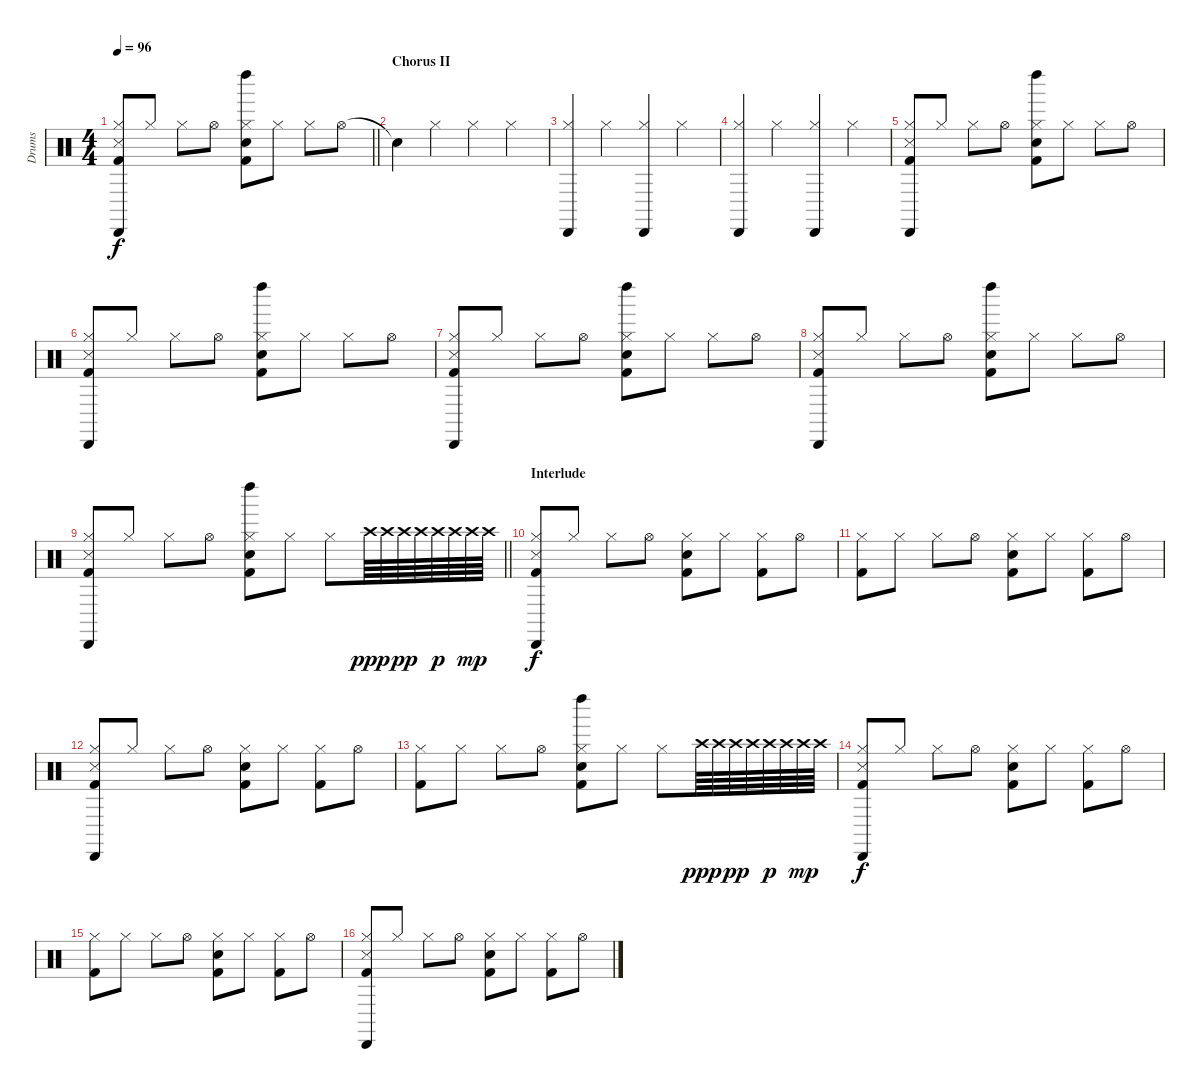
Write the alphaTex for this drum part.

\track ("Drums   " "Drums   ") {instrument percussion}
\staff {score}
\articulation defaults
\ts (4 4)
\tempo 96
\clef neutral
\barLineRight lightlight
\ks c
("Snare (side stick) 3" "Hi-Hat (closed)" "Kick (hit) 2" "Cabasa (hit)").8{dy f} "Hi-Hat (closed)".8 "Hi-Hat (closed)".8 "Hi-Hat (open)".8 ("Hi-Hat (closed)" "Electric Snare (hit)" "Kick (hit) 2" "Left Maraca (hit)").8 "Hi-Hat (closed)".8 "Hi-Hat (closed)".8 "Hi-Hat (open)".8 |
\section ("" "Chorus II")
"Snare (hit)"{t}.4 "Hi-Hat (closed)".4 "Hi-Hat (closed)".4 "Hi-Hat (closed)".4 |
("Hi-Hat (closed)" "Cabasa (hit)").4 "Hi-Hat (closed)".4 ("Hi-Hat (closed)" "Cabasa (hit)").4 "Hi-Hat (closed)".4 |
("Hi-Hat (closed)" "Cabasa (hit)").4 "Hi-Hat (closed)".4 ("Hi-Hat (closed)" "Cabasa (hit)").4 "Hi-Hat (closed)".4 |
("Snare (side stick) 3" "Hi-Hat (closed)" "Kick (hit) 2" "Cabasa (hit)").8 "Hi-Hat (closed)".8 "Hi-Hat (closed)".8 "Hi-Hat (open)".8 ("Hi-Hat (closed)" "Electric Snare (hit)" "Kick (hit) 2" "Left Maraca (hit)").8 "Hi-Hat (closed)".8 "Hi-Hat (closed)".8 "Hi-Hat (open)".8 |
("Snare (side stick) 3" "Hi-Hat (closed)" "Kick (hit) 2" "Cabasa (hit)").8 "Hi-Hat (closed)".8 "Hi-Hat (closed)".8 "Hi-Hat (open)".8 ("Hi-Hat (closed)" "Electric Snare (hit)" "Kick (hit) 2" "Left Maraca (hit)").8 "Hi-Hat (closed)".8 "Hi-Hat (closed)".8 "Hi-Hat (open)".8 |
("Snare (side stick) 3" "Hi-Hat (closed)" "Kick (hit) 2" "Cabasa (hit)").8 "Hi-Hat (closed)".8 "Hi-Hat (closed)".8 "Hi-Hat (open)".8 ("Hi-Hat (closed)" "Electric Snare (hit)" "Kick (hit) 2" "Left Maraca (hit)").8 "Hi-Hat (closed)".8 "Hi-Hat (closed)".8 "Hi-Hat (open)".8 |
("Snare (side stick) 3" "Hi-Hat (closed)" "Kick (hit) 2" "Cabasa (hit)").8 "Hi-Hat (closed)".8 "Hi-Hat (closed)".8 "Hi-Hat (open)".8 ("Hi-Hat (closed)" "Electric Snare (hit)" "Kick (hit) 2" "Left Maraca (hit)").8 "Hi-Hat (closed)".8 "Hi-Hat (closed)".8 "Hi-Hat (open)".8 |
\barLineRight lightlight
("Snare (side stick) 3" "Hi-Hat (closed)" "Kick (hit) 2" "Cabasa (hit)").8 "Hi-Hat (closed)".8 "Hi-Hat (closed)".8 "Hi-Hat (open)".8 ("Hi-Hat (closed)" "Electric Snare (hit)" "Kick (hit) 2" "Left Maraca (hit)").8 "Hi-Hat (closed)".8 "Hi-Hat (closed)".8 "Crash high (hit)".64{dy ppp} "Crash high (hit)".64 "Crash high (hit)".64{dy pp} "Crash high (hit)".64 "Crash high (hit)".64{dy p} "Crash high (hit)".64 "Crash high (hit)".64{dy mp} "Crash high (hit)".64 |
\section ("" "Interlude")
("Snare (side stick) 3" "Hi-Hat (closed)" "Kick (hit) 2" "Cabasa (hit)").8{dy f} "Hi-Hat (closed)".8 "Hi-Hat (closed)".8 "Hi-Hat (open)".8 ("Hi-Hat (closed)" "Electric Snare (hit)" "Kick (hit) 2").8 "Hi-Hat (closed)".8 ("Hi-Hat (closed)" "Kick (hit) 2").8 "Hi-Hat (open)".8 |
("Hi-Hat (closed)" "Kick (hit) 2").8 "Hi-Hat (closed)".8 "Hi-Hat (closed)".8 "Hi-Hat (open)".8 ("Hi-Hat (closed)" "Electric Snare (hit)" "Kick (hit) 2").8 "Hi-Hat (closed)".8 ("Hi-Hat (closed)" "Kick (hit) 2").8 "Hi-Hat (open)".8 |
("Snare (side stick) 3" "Hi-Hat (closed)" "Kick (hit) 2" "Cabasa (hit)").8 "Hi-Hat (closed)".8 "Hi-Hat (closed)".8 "Hi-Hat (open)".8 ("Hi-Hat (closed)" "Electric Snare (hit)" "Kick (hit) 2").8 "Hi-Hat (closed)".8 ("Hi-Hat (closed)" "Kick (hit) 2").8 "Hi-Hat (open)".8 |
("Hi-Hat (closed)" "Kick (hit) 2").8 "Hi-Hat (closed)".8 "Hi-Hat (closed)".8 "Hi-Hat (open)".8 ("Hi-Hat (closed)" "Electric Snare (hit)" "Kick (hit) 2" "Left Maraca (hit)").8 "Hi-Hat (closed)".8 "Hi-Hat (closed)".8 "Crash high (hit)".64{dy ppp} "Crash high (hit)".64 "Crash high (hit)".64{dy pp} "Crash high (hit)".64 "Crash high (hit)".64{dy p} "Crash high (hit)".64 "Crash high (hit)".64{dy mp} "Crash high (hit)".64 |
("Snare (side stick) 3" "Hi-Hat (closed)" "Kick (hit) 2" "Cabasa (hit)").8{dy f} "Hi-Hat (closed)".8 "Hi-Hat (closed)".8 "Hi-Hat (open)".8 ("Hi-Hat (closed)" "Electric Snare (hit)" "Kick (hit) 2").8 "Hi-Hat (closed)".8 ("Hi-Hat (closed)" "Kick (hit) 2").8 "Hi-Hat (open)".8 |
("Hi-Hat (closed)" "Kick (hit) 2").8 "Hi-Hat (closed)".8 "Hi-Hat (closed)".8 "Hi-Hat (open)".8 ("Hi-Hat (closed)" "Electric Snare (hit)" "Kick (hit) 2").8 "Hi-Hat (closed)".8 ("Hi-Hat (closed)" "Kick (hit) 2").8 "Hi-Hat (open)".8 |
("Snare (side stick) 3" "Hi-Hat (closed)" "Kick (hit) 2" "Cabasa (hit)").8 "Hi-Hat (closed)".8 "Hi-Hat (closed)".8 "Hi-Hat (open)".8 ("Hi-Hat (closed)" "Electric Snare (hit)" "Kick (hit) 2").8 "Hi-Hat (closed)".8 ("Hi-Hat (closed)" "Kick (hit) 2").8 "Hi-Hat (open)".8
